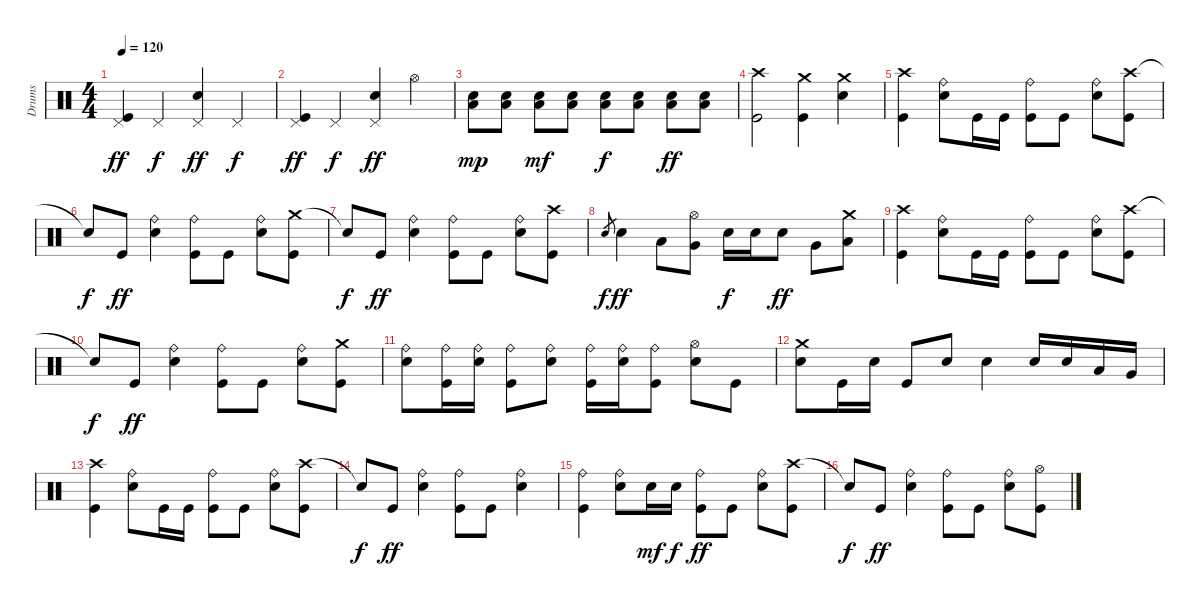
\track ("Drums" "Drums") {instrument percussion}
\staff {score}
\articulation defaults
\ts (4 4)
\tempo 120
\clef neutral
\ks c
("Pedal Hi-Hat (hit)" "Kick (hit)").4{dy ff} "Pedal Hi-Hat (hit)".4{dy f} ("Pedal Hi-Hat (hit)" "Electric Snare (hit)").4{dy ff} "Pedal Hi-Hat (hit)".4{dy f} |
("Pedal Hi-Hat (hit)" "Kick (hit)").4{dy ff} "Pedal Hi-Hat (hit)".4{dy f} ("Pedal Hi-Hat (hit)" "Electric Snare (hit)").4{dy ff} "Hi-Hat (open)".4 |
("Low Floor Tom (hit)" "Electric Snare (hit)").8{dy mp} ("Low Floor Tom (hit)" "Electric Snare (hit)").8 ("Low Floor Tom (hit)" "Electric Snare (hit)").8{dy mf} ("Low Floor Tom (hit)" "Electric Snare (hit)").8 ("Low Floor Tom (hit)" "Electric Snare (hit)").8{dy f} ("Low Floor Tom (hit)" "Electric Snare (hit)").8 ("Low Floor Tom (hit)" "Electric Snare (hit)").8{dy ff} ("Low Floor Tom (hit)" "Electric Snare (hit)").8 |
("Crash high (hit)" "Kick (hit)").2 ("Crash medium (hit)" "Kick (hit)").4 ("Crash medium (hit)" "Electric Snare (hit)").4 |
("Crash high (hit)" "Kick (hit)").4 ("Ride (bell)" "Electric Snare (hit)").8 "Kick (hit)".16 "Kick (hit)".16 ("Ride (bell)" "Kick (hit)").8 "Kick (hit)".8 ("Ride (bell)" "Electric Snare (hit)").8 ("Crash high (hit)" "Kick (hit)").8 |
"Snare (hit)"{t}.8{dy f} "Kick (hit)".8{dy ff} ("Ride (bell)" "Electric Snare (hit)").4 ("Ride (bell)" "Kick (hit)").8 "Kick (hit)".8 ("Ride (bell)" "Electric Snare (hit)").8 ("Crash medium (hit)" "Kick (hit)").8 |
"Snare (hit)"{t}.8{dy f} "Kick (hit)".8{dy ff} ("Ride (bell)" "Electric Snare (hit)").4 ("Ride (bell)" "Kick (hit)").8 "Kick (hit)".8 ("Ride (bell)" "Electric Snare (hit)").8 ("Crash high (hit)" "Kick (hit)").8 |
"Electric Snare (hit)".8{gr dy f} "Electric Snare (hit)".4{dy ff} "Low Tom (hit)".8 ("Hi-Hat (open)" "Very Low Tom (hit)").8 "Electric Snare (hit)".16{dy f} "Electric Snare (hit)".16 "Electric Snare (hit)".8{dy ff} "Very Low Tom (hit)".8 ("Crash medium (hit)" "Low Floor Tom (hit)").8 |
("Crash high (hit)" "Kick (hit)").4 ("Ride (bell)" "Electric Snare (hit)").8 "Kick (hit)".16 "Kick (hit)".16 ("Ride (bell)" "Kick (hit)").8 "Kick (hit)".8 ("Ride (bell)" "Electric Snare (hit)").8 ("Crash high (hit)" "Kick (hit)").8 |
"Snare (hit)"{t}.8{dy f} "Kick (hit)".8{dy ff} ("Ride (bell)" "Electric Snare (hit)").4 ("Ride (bell)" "Kick (hit)").8 "Kick (hit)".8 ("Ride (bell)" "Electric Snare (hit)").8 ("Crash medium (hit)" "Kick (hit)").8 |
("Ride (bell)" "Electric Snare (hit)").8 ("Ride (bell)" "Kick (hit)").16 ("Ride (bell)" "Electric Snare (hit)").16 ("Ride (bell)" "Kick (hit)").8 ("Ride (bell)" "Electric Snare (hit)").8 ("Ride (bell)" "Kick (hit)").16 ("Ride (bell)" "Electric Snare (hit)").16 ("Ride (bell)" "Kick (hit)").8 ("Hi-Hat (open)" "Electric Snare (hit)").8 "Kick (hit)".8 |
("Crash medium (hit)" "Electric Snare (hit)").8 "Kick (hit)".16 "Electric Snare (hit)".16 "Kick (hit)".8 "Electric Snare (hit)".8 "Electric Snare (hit)".4 "Electric Snare (hit)".16 "Electric Snare (hit)".16 "Low Tom (hit)".16 "Very Low Tom (hit)".16 |
("Crash high (hit)" "Kick (hit)").4 ("Ride (bell)" "Electric Snare (hit)").8 "Kick (hit)".16 "Kick (hit)".16 ("Ride (bell)" "Kick (hit)").8 "Kick (hit)".8 ("Ride (bell)" "Electric Snare (hit)").8 ("Crash high (hit)" "Kick (hit)").8 |
"Snare (hit)"{t}.8{dy f} "Kick (hit)".8{dy ff} ("Ride (bell)" "Electric Snare (hit)").4 ("Ride (bell)" "Kick (hit)").8 "Kick (hit)".8 ("Ride (bell)" "Electric Snare (hit)").4 |
("Ride (bell)" "Kick (hit)").4 ("Ride (bell)" "Electric Snare (hit)").8 "Electric Snare (hit)".16{dy mf} "Electric Snare (hit)".16{dy f} ("Ride (bell)" "Kick (hit)").8{dy ff} "Kick (hit)".8 ("Ride (bell)" "Electric Snare (hit)").8 ("Crash high (hit)" "Kick (hit)").8 |
"Snare (hit)"{t}.8{dy f} "Kick (hit)".8{dy ff} ("Ride (bell)" "Electric Snare (hit)").4 ("Ride (bell)" "Kick (hit)").8 "Kick (hit)".8 ("Ride (bell)" "Electric Snare (hit)").8 ("Hi-Hat (open)" "Kick (hit)").8
